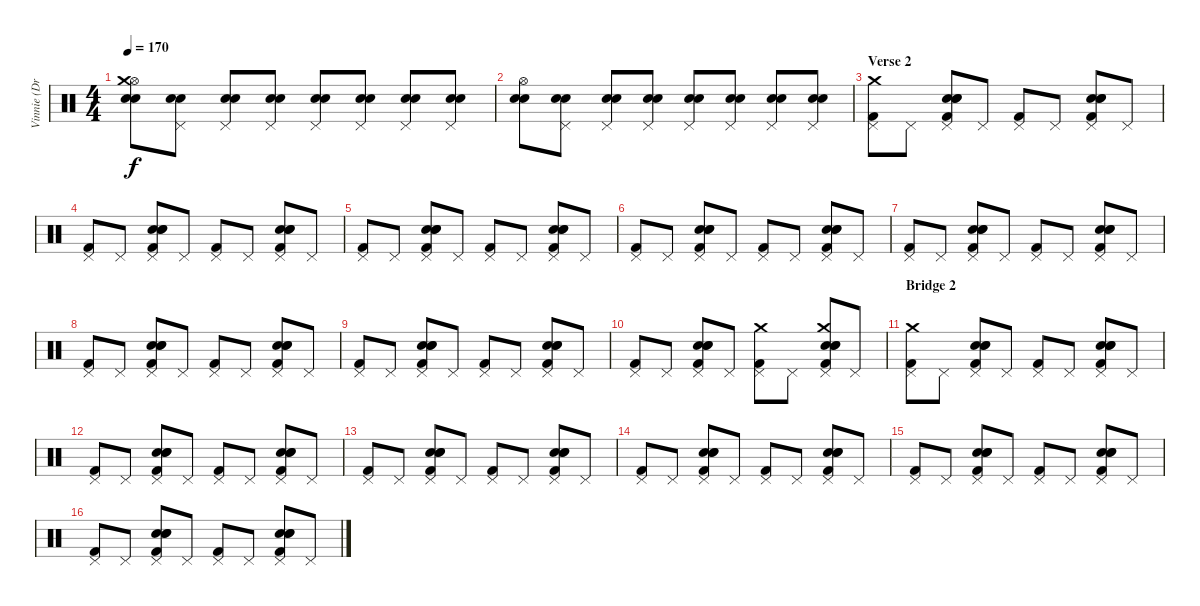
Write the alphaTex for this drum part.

\track ("Vinnie (Drums)" "Vinnie (Dr") {instrument percussion}
\staff {score}
\articulation defaults
\ts (4 4)
\tempo 170
\clef neutral
\ks c
("Snare (hit) 2" "Electric Snare (hit)" "Hi-Hat (open)" "Crash medium (hit)").8{dy f} ("Snare (hit) 2" "Electric Snare (hit)" "Pedal Hi-Hat (hit)").8 ("Snare (hit) 2" "Electric Snare (hit)" "Pedal Hi-Hat (hit)").8 ("Snare (hit) 2" "Electric Snare (hit)" "Pedal Hi-Hat (hit)").8 ("Snare (hit) 2" "Electric Snare (hit)" "Pedal Hi-Hat (hit)").8 ("Snare (hit) 2" "Electric Snare (hit)" "Pedal Hi-Hat (hit)").8 ("Snare (hit) 2" "Electric Snare (hit)" "Pedal Hi-Hat (hit)").8 ("Snare (hit) 2" "Electric Snare (hit)" "Pedal Hi-Hat (hit)").8 |
("Snare (hit) 2" "Electric Snare (hit)" "Hi-Hat (open)").8 ("Snare (hit) 2" "Electric Snare (hit)" "Pedal Hi-Hat (hit)").8 ("Snare (hit) 2" "Electric Snare (hit)" "Pedal Hi-Hat (hit)").8 ("Snare (hit) 2" "Electric Snare (hit)" "Pedal Hi-Hat (hit)").8 ("Snare (hit) 2" "Electric Snare (hit)" "Pedal Hi-Hat (hit)").8 ("Snare (hit) 2" "Electric Snare (hit)" "Pedal Hi-Hat (hit)").8 ("Snare (hit) 2" "Electric Snare (hit)" "Pedal Hi-Hat (hit)").8 ("Snare (hit) 2" "Electric Snare (hit)" "Pedal Hi-Hat (hit)").8 |
\section ("" "Verse 2")
("Kick (hit) 2" "Pedal Hi-Hat (hit)" "Crash medium (hit)").8 "Pedal Hi-Hat (hit)".8 ("Kick (hit) 2" "Snare (hit) 2" "Pedal Hi-Hat (hit)" "Electric Snare (hit)" "Snare (hit) 2").8 "Pedal Hi-Hat (hit)".8 ("Kick (hit) 2" "Pedal Hi-Hat (hit)").8 "Pedal Hi-Hat (hit)".8 ("Kick (hit) 2" "Snare (hit) 2" "Pedal Hi-Hat (hit)" "Electric Snare (hit)" "Snare (hit) 2").8 "Pedal Hi-Hat (hit)".8 |
("Kick (hit) 2" "Pedal Hi-Hat (hit)").8 "Pedal Hi-Hat (hit)".8 ("Kick (hit) 2" "Snare (hit) 2" "Pedal Hi-Hat (hit)" "Electric Snare (hit)" "Snare (hit) 2").8 "Pedal Hi-Hat (hit)".8 ("Kick (hit) 2" "Pedal Hi-Hat (hit)").8 "Pedal Hi-Hat (hit)".8 ("Kick (hit) 2" "Snare (hit) 2" "Pedal Hi-Hat (hit)" "Electric Snare (hit)" "Snare (hit) 2").8 "Pedal Hi-Hat (hit)".8 |
("Kick (hit) 2" "Pedal Hi-Hat (hit)").8 "Pedal Hi-Hat (hit)".8 ("Kick (hit) 2" "Snare (hit) 2" "Pedal Hi-Hat (hit)" "Electric Snare (hit)" "Snare (hit) 2").8 "Pedal Hi-Hat (hit)".8 ("Kick (hit) 2" "Pedal Hi-Hat (hit)").8 "Pedal Hi-Hat (hit)".8 ("Kick (hit) 2" "Snare (hit) 2" "Pedal Hi-Hat (hit)" "Electric Snare (hit)" "Snare (hit) 2").8 "Pedal Hi-Hat (hit)".8 |
("Kick (hit) 2" "Pedal Hi-Hat (hit)").8 "Pedal Hi-Hat (hit)".8 ("Kick (hit) 2" "Snare (hit) 2" "Pedal Hi-Hat (hit)" "Electric Snare (hit)" "Snare (hit) 2").8 "Pedal Hi-Hat (hit)".8 ("Kick (hit) 2" "Pedal Hi-Hat (hit)").8 "Pedal Hi-Hat (hit)".8 ("Kick (hit) 2" "Snare (hit) 2" "Pedal Hi-Hat (hit)" "Electric Snare (hit)" "Snare (hit) 2").8 "Pedal Hi-Hat (hit)".8 |
("Kick (hit) 2" "Pedal Hi-Hat (hit)").8 "Pedal Hi-Hat (hit)".8 ("Kick (hit) 2" "Snare (hit) 2" "Pedal Hi-Hat (hit)" "Electric Snare (hit)" "Snare (hit) 2").8 "Pedal Hi-Hat (hit)".8 ("Kick (hit) 2" "Pedal Hi-Hat (hit)").8 "Pedal Hi-Hat (hit)".8 ("Kick (hit) 2" "Snare (hit) 2" "Pedal Hi-Hat (hit)" "Electric Snare (hit)" "Snare (hit) 2").8 "Pedal Hi-Hat (hit)".8 |
("Kick (hit) 2" "Pedal Hi-Hat (hit)").8 "Pedal Hi-Hat (hit)".8 ("Kick (hit) 2" "Snare (hit) 2" "Pedal Hi-Hat (hit)" "Electric Snare (hit)" "Snare (hit) 2").8 "Pedal Hi-Hat (hit)".8 ("Kick (hit) 2" "Pedal Hi-Hat (hit)").8 "Pedal Hi-Hat (hit)".8 ("Kick (hit) 2" "Snare (hit) 2" "Pedal Hi-Hat (hit)" "Electric Snare (hit)" "Snare (hit) 2").8 "Pedal Hi-Hat (hit)".8 |
("Kick (hit) 2" "Pedal Hi-Hat (hit)").8 "Pedal Hi-Hat (hit)".8 ("Kick (hit) 2" "Snare (hit) 2" "Pedal Hi-Hat (hit)" "Electric Snare (hit)" "Snare (hit) 2").8 "Pedal Hi-Hat (hit)".8 ("Kick (hit) 2" "Pedal Hi-Hat (hit)").8 "Pedal Hi-Hat (hit)".8 ("Kick (hit) 2" "Snare (hit) 2" "Pedal Hi-Hat (hit)" "Electric Snare (hit)" "Snare (hit) 2").8 "Pedal Hi-Hat (hit)".8 |
("Kick (hit) 2" "Pedal Hi-Hat (hit)").8 "Pedal Hi-Hat (hit)".8 ("Kick (hit) 2" "Snare (hit) 2" "Pedal Hi-Hat (hit)" "Electric Snare (hit)" "Snare (hit) 2").8 "Pedal Hi-Hat (hit)".8 ("Kick (hit) 2" "Pedal Hi-Hat (hit)" "Crash medium (hit)").8 "Pedal Hi-Hat (hit)".8 ("Kick (hit) 2" "Snare (hit) 2" "Pedal Hi-Hat (hit)" "Electric Snare (hit)" "Snare (hit) 2" "Crash medium (hit)").8 "Pedal Hi-Hat (hit)".8 |
\section ("" "Bridge 2")
("Kick (hit) 2" "Pedal Hi-Hat (hit)" "Crash medium (hit)").8 "Pedal Hi-Hat (hit)".8 ("Kick (hit) 2" "Snare (hit) 2" "Pedal Hi-Hat (hit)" "Electric Snare (hit)" "Snare (hit) 2").8 "Pedal Hi-Hat (hit)".8 ("Kick (hit) 2" "Pedal Hi-Hat (hit)").8 "Pedal Hi-Hat (hit)".8 ("Kick (hit) 2" "Snare (hit) 2" "Pedal Hi-Hat (hit)" "Electric Snare (hit)" "Snare (hit) 2").8 "Pedal Hi-Hat (hit)".8 |
("Kick (hit) 2" "Pedal Hi-Hat (hit)").8 "Pedal Hi-Hat (hit)".8 ("Kick (hit) 2" "Snare (hit) 2" "Pedal Hi-Hat (hit)" "Electric Snare (hit)" "Snare (hit) 2").8 "Pedal Hi-Hat (hit)".8 ("Kick (hit) 2" "Pedal Hi-Hat (hit)").8 "Pedal Hi-Hat (hit)".8 ("Kick (hit) 2" "Snare (hit) 2" "Pedal Hi-Hat (hit)" "Electric Snare (hit)" "Snare (hit) 2").8 "Pedal Hi-Hat (hit)".8 |
("Kick (hit) 2" "Pedal Hi-Hat (hit)").8 "Pedal Hi-Hat (hit)".8 ("Kick (hit) 2" "Snare (hit) 2" "Pedal Hi-Hat (hit)" "Electric Snare (hit)" "Snare (hit) 2").8 "Pedal Hi-Hat (hit)".8 ("Kick (hit) 2" "Pedal Hi-Hat (hit)").8 "Pedal Hi-Hat (hit)".8 ("Kick (hit) 2" "Snare (hit) 2" "Pedal Hi-Hat (hit)" "Electric Snare (hit)" "Snare (hit) 2").8 "Pedal Hi-Hat (hit)".8 |
("Kick (hit) 2" "Pedal Hi-Hat (hit)").8 "Pedal Hi-Hat (hit)".8 ("Kick (hit) 2" "Snare (hit) 2" "Pedal Hi-Hat (hit)" "Electric Snare (hit)" "Snare (hit) 2").8 "Pedal Hi-Hat (hit)".8 ("Kick (hit) 2" "Pedal Hi-Hat (hit)").8 "Pedal Hi-Hat (hit)".8 ("Kick (hit) 2" "Snare (hit) 2" "Pedal Hi-Hat (hit)" "Electric Snare (hit)" "Snare (hit) 2").8 "Pedal Hi-Hat (hit)".8 |
("Kick (hit) 2" "Pedal Hi-Hat (hit)").8 "Pedal Hi-Hat (hit)".8 ("Kick (hit) 2" "Snare (hit) 2" "Pedal Hi-Hat (hit)" "Electric Snare (hit)" "Snare (hit) 2").8 "Pedal Hi-Hat (hit)".8 ("Kick (hit) 2" "Pedal Hi-Hat (hit)").8 "Pedal Hi-Hat (hit)".8 ("Kick (hit) 2" "Snare (hit) 2" "Pedal Hi-Hat (hit)" "Electric Snare (hit)" "Snare (hit) 2").8 "Pedal Hi-Hat (hit)".8 |
("Kick (hit) 2" "Pedal Hi-Hat (hit)").8 "Pedal Hi-Hat (hit)".8 ("Kick (hit) 2" "Snare (hit) 2" "Pedal Hi-Hat (hit)" "Electric Snare (hit)" "Snare (hit) 2").8 "Pedal Hi-Hat (hit)".8 ("Kick (hit) 2" "Pedal Hi-Hat (hit)").8 "Pedal Hi-Hat (hit)".8 ("Kick (hit) 2" "Snare (hit) 2" "Pedal Hi-Hat (hit)" "Electric Snare (hit)" "Snare (hit) 2").8 "Pedal Hi-Hat (hit)".8
